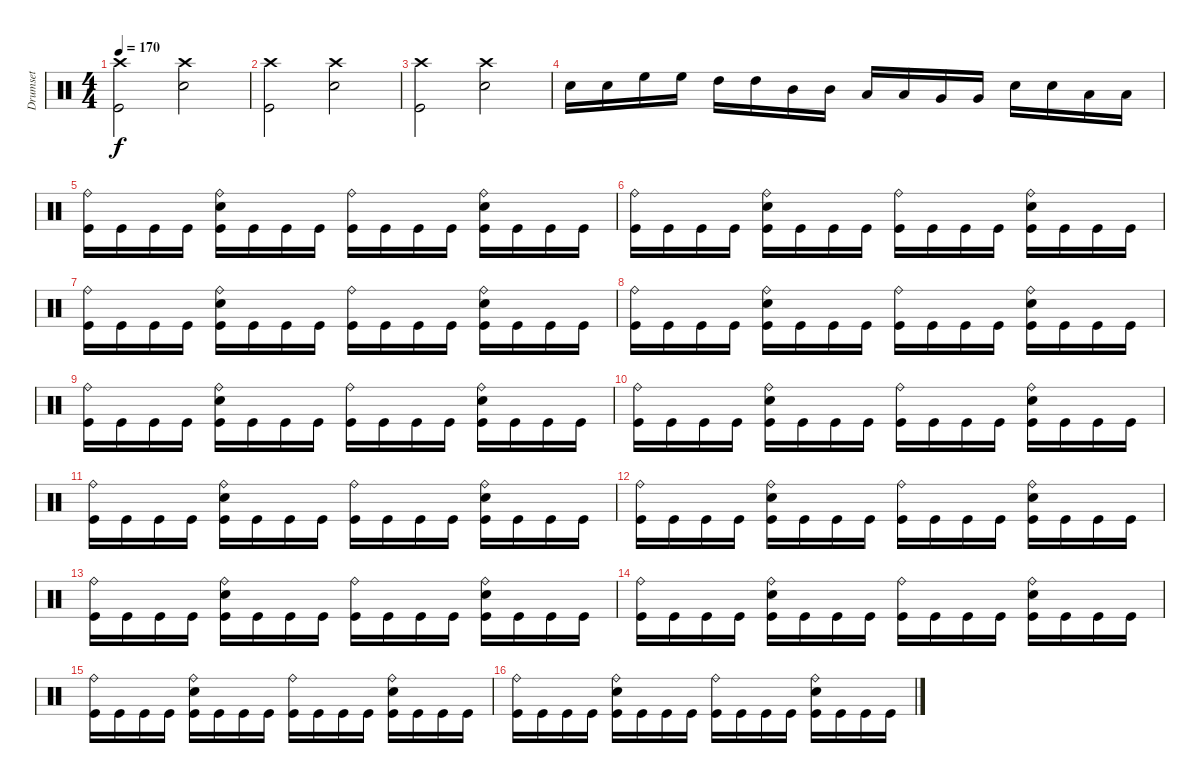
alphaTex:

\track ("Drumset" "Drumset") {instrument percussion}
\staff {score}
\articulation defaults
\ts (4 4)
\tempo 170
\clef neutral
\ks c
("Crash high (hit)" "Kick (hit)").2{dy f} ("Crash high (hit)" "Snare (hit) 2").2 |
("Crash high (hit)" "Kick (hit)").2 ("Crash high (hit)" "Snare (hit) 2").2 |
("Crash high (hit)" "Kick (hit)").2 ("Crash high (hit)" "Snare (hit) 2").2 |
"Snare (hit) 2".16 "Snare (hit) 2".16 "High Floor Tom (hit)".16 "High Floor Tom (hit)".16 "High Tom (hit)".16 "High Tom (hit)".16 "Mid Tom (hit)".16 "Mid Tom (hit)".16 "Low Tom (hit)".16 "Low Tom (hit)".16 "Very Low Tom (hit)".16 "Very Low Tom (hit)".16 "Snare (hit) 2".16 "Snare (hit) 2".16 "Low Tom (hit)".16 "Low Tom (hit)".16 |
("Ride (bell)" "Kick (hit)").16 "Kick (hit)".16 "Kick (hit)".16 "Kick (hit)".16 ("Ride (bell)" "Snare (hit) 2" "Kick (hit)").16 "Kick (hit)".16 "Kick (hit)".16 "Kick (hit)".16 ("Ride (bell)" "Kick (hit)").16 "Kick (hit)".16 "Kick (hit)".16 "Kick (hit)".16 ("Ride (bell)" "Snare (hit) 2" "Kick (hit)").16 "Kick (hit)".16 "Kick (hit)".16 "Kick (hit)".16 |
("Ride (bell)" "Kick (hit)").16 "Kick (hit)".16 "Kick (hit)".16 "Kick (hit)".16 ("Ride (bell)" "Snare (hit) 2" "Kick (hit)").16 "Kick (hit)".16 "Kick (hit)".16 "Kick (hit)".16 ("Ride (bell)" "Kick (hit)").16 "Kick (hit)".16 "Kick (hit)".16 "Kick (hit)".16 ("Ride (bell)" "Snare (hit) 2" "Kick (hit)").16 "Kick (hit)".16 "Kick (hit)".16 "Kick (hit)".16 |
("Ride (bell)" "Kick (hit)").16 "Kick (hit)".16 "Kick (hit)".16 "Kick (hit)".16 ("Ride (bell)" "Snare (hit) 2" "Kick (hit)").16 "Kick (hit)".16 "Kick (hit)".16 "Kick (hit)".16 ("Ride (bell)" "Kick (hit)").16 "Kick (hit)".16 "Kick (hit)".16 "Kick (hit)".16 ("Ride (bell)" "Snare (hit) 2" "Kick (hit)").16 "Kick (hit)".16 "Kick (hit)".16 "Kick (hit)".16 |
("Ride (bell)" "Kick (hit)").16 "Kick (hit)".16 "Kick (hit)".16 "Kick (hit)".16 ("Ride (bell)" "Snare (hit) 2" "Kick (hit)").16 "Kick (hit)".16 "Kick (hit)".16 "Kick (hit)".16 ("Ride (bell)" "Kick (hit)").16 "Kick (hit)".16 "Kick (hit)".16 "Kick (hit)".16 ("Ride (bell)" "Snare (hit) 2" "Kick (hit)").16 "Kick (hit)".16 "Kick (hit)".16 "Kick (hit)".16 |
("Ride (bell)" "Kick (hit)").16 "Kick (hit)".16 "Kick (hit)".16 "Kick (hit)".16 ("Ride (bell)" "Snare (hit) 2" "Kick (hit)").16 "Kick (hit)".16 "Kick (hit)".16 "Kick (hit)".16 ("Ride (bell)" "Kick (hit)").16 "Kick (hit)".16 "Kick (hit)".16 "Kick (hit)".16 ("Ride (bell)" "Snare (hit) 2" "Kick (hit)").16 "Kick (hit)".16 "Kick (hit)".16 "Kick (hit)".16 |
("Ride (bell)" "Kick (hit)").16 "Kick (hit)".16 "Kick (hit)".16 "Kick (hit)".16 ("Ride (bell)" "Snare (hit) 2" "Kick (hit)").16 "Kick (hit)".16 "Kick (hit)".16 "Kick (hit)".16 ("Ride (bell)" "Kick (hit)").16 "Kick (hit)".16 "Kick (hit)".16 "Kick (hit)".16 ("Ride (bell)" "Snare (hit) 2" "Kick (hit)").16 "Kick (hit)".16 "Kick (hit)".16 "Kick (hit)".16 |
("Ride (bell)" "Kick (hit)").16 "Kick (hit)".16 "Kick (hit)".16 "Kick (hit)".16 ("Ride (bell)" "Snare (hit) 2" "Kick (hit)").16 "Kick (hit)".16 "Kick (hit)".16 "Kick (hit)".16 ("Ride (bell)" "Kick (hit)").16 "Kick (hit)".16 "Kick (hit)".16 "Kick (hit)".16 ("Ride (bell)" "Snare (hit) 2" "Kick (hit)").16 "Kick (hit)".16 "Kick (hit)".16 "Kick (hit)".16 |
("Ride (bell)" "Kick (hit)").16 "Kick (hit)".16 "Kick (hit)".16 "Kick (hit)".16 ("Ride (bell)" "Snare (hit) 2" "Kick (hit)").16 "Kick (hit)".16 "Kick (hit)".16 "Kick (hit)".16 ("Ride (bell)" "Kick (hit)").16 "Kick (hit)".16 "Kick (hit)".16 "Kick (hit)".16 ("Ride (bell)" "Snare (hit) 2" "Kick (hit)").16 "Kick (hit)".16 "Kick (hit)".16 "Kick (hit)".16 |
("Ride (bell)" "Kick (hit)").16 "Kick (hit)".16 "Kick (hit)".16 "Kick (hit)".16 ("Ride (bell)" "Snare (hit) 2" "Kick (hit)").16 "Kick (hit)".16 "Kick (hit)".16 "Kick (hit)".16 ("Ride (bell)" "Kick (hit)").16 "Kick (hit)".16 "Kick (hit)".16 "Kick (hit)".16 ("Ride (bell)" "Snare (hit) 2" "Kick (hit)").16 "Kick (hit)".16 "Kick (hit)".16 "Kick (hit)".16 |
("Ride (bell)" "Kick (hit)").16 "Kick (hit)".16 "Kick (hit)".16 "Kick (hit)".16 ("Ride (bell)" "Snare (hit) 2" "Kick (hit)").16 "Kick (hit)".16 "Kick (hit)".16 "Kick (hit)".16 ("Ride (bell)" "Kick (hit)").16 "Kick (hit)".16 "Kick (hit)".16 "Kick (hit)".16 ("Ride (bell)" "Snare (hit) 2" "Kick (hit)").16 "Kick (hit)".16 "Kick (hit)".16 "Kick (hit)".16 |
("Ride (bell)" "Kick (hit)").16 "Kick (hit)".16 "Kick (hit)".16 "Kick (hit)".16 ("Ride (bell)" "Snare (hit) 2" "Kick (hit)").16 "Kick (hit)".16 "Kick (hit)".16 "Kick (hit)".16 ("Ride (bell)" "Kick (hit)").16 "Kick (hit)".16 "Kick (hit)".16 "Kick (hit)".16 ("Ride (bell)" "Snare (hit) 2" "Kick (hit)").16 "Kick (hit)".16 "Kick (hit)".16 "Kick (hit)".16 |
("Ride (bell)" "Kick (hit)").16 "Kick (hit)".16 "Kick (hit)".16 "Kick (hit)".16 ("Ride (bell)" "Snare (hit) 2" "Kick (hit)").16 "Kick (hit)".16 "Kick (hit)".16 "Kick (hit)".16 ("Ride (bell)" "Kick (hit)").16 "Kick (hit)".16 "Kick (hit)".16 "Kick (hit)".16 ("Ride (bell)" "Snare (hit) 2" "Kick (hit)").16 "Kick (hit)".16 "Kick (hit)".16 "Kick (hit)".16
